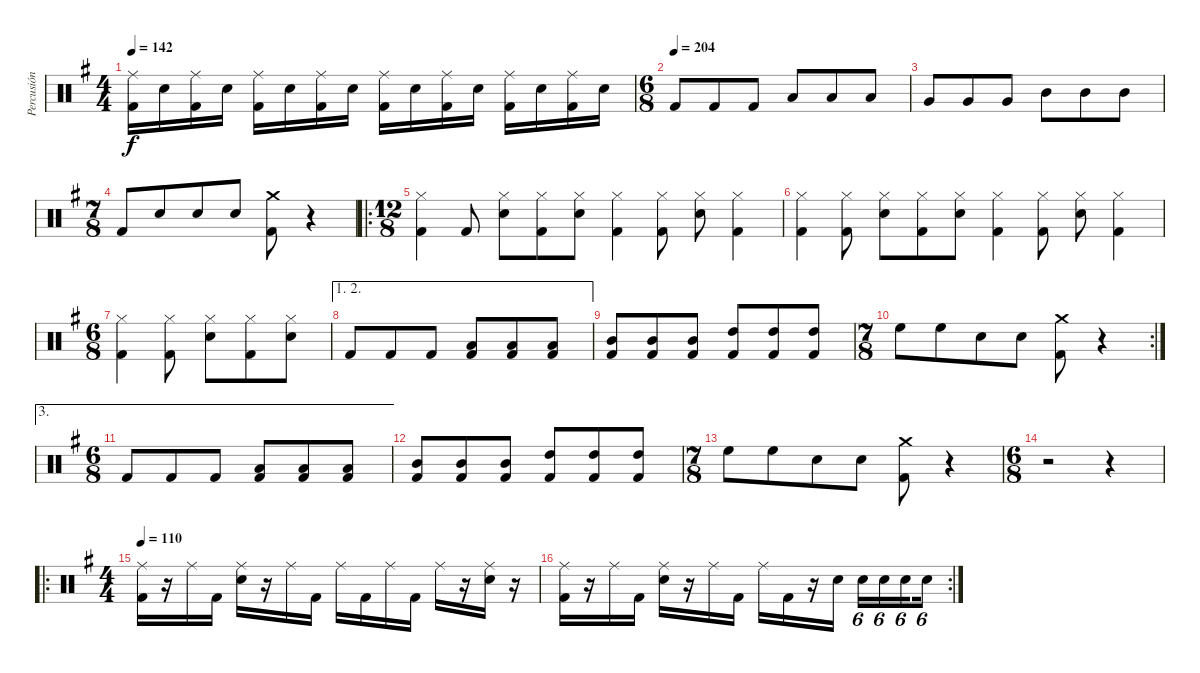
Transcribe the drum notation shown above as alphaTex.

\track ("Percusión" "Percusión") {instrument percussion}
\staff {score}
\articulation defaults
\ts (4 4)
\tempo 142
\clef neutral
\ks g
("Ride (middle)" "Kick (hit) 2").16{dy f} "Electric Snare (hit)".16 ("Ride (middle)" "Kick (hit) 2").16 "Electric Snare (hit)".16 ("Ride (middle)" "Kick (hit) 2").16 "Electric Snare (hit)".16 ("Ride (middle)" "Kick (hit) 2").16 "Electric Snare (hit)".16 ("Ride (middle)" "Kick (hit) 2").16 "Electric Snare (hit)".16 ("Ride (middle)" "Kick (hit) 2").16 "Electric Snare (hit)".16 ("Ride (middle)" "Kick (hit) 2").16 "Electric Snare (hit)".16 ("Ride (middle)" "Kick (hit) 2").16 "Electric Snare (hit)".16 |
\ts (6 8)
\tempo (204)
"Kick (hit) 2".8 "Kick (hit) 2".8 "Kick (hit) 2".8 "Low Floor Tom (hit)".8 "Low Floor Tom (hit)".8 "Low Floor Tom (hit)".8 |
"Very Low Tom (hit)".8 "Very Low Tom (hit)".8 "Very Low Tom (hit)".8 "Mid Tom (hit)".8 "Mid Tom (hit)".8 "Mid Tom (hit)".8 |
\ts (7 8)
"Kick (hit) 2".8 "Electric Snare (hit)".8 "Electric Snare (hit)".8 "Electric Snare (hit)".8 ("Crash medium (hit)" "Kick (hit) 2").8 r.4 |
\ro
\ts (12 8)
("Hi-Hat (closed)" "Kick (hit) 2").4 "Kick (hit) 2".8 ("Hi-Hat (closed)" "Electric Snare (hit)").8 ("Hi-Hat (closed)" "Kick (hit) 2").8 ("Hi-Hat (closed)" "Electric Snare (hit)").8 ("Hi-Hat (closed)" "Kick (hit) 2").4 ("Hi-Hat (closed)" "Kick (hit) 2").8 ("Hi-Hat (closed)" "Electric Snare (hit)").8 ("Hi-Hat (closed)" "Kick (hit) 2").4 |
("Hi-Hat (closed)" "Kick (hit) 2").4 ("Hi-Hat (closed)" "Kick (hit) 2").8 ("Hi-Hat (closed)" "Electric Snare (hit)").8 ("Hi-Hat (closed)" "Kick (hit) 2").8 ("Hi-Hat (closed)" "Electric Snare (hit)").8 ("Hi-Hat (closed)" "Kick (hit) 2").4 ("Hi-Hat (closed)" "Kick (hit) 2").8 ("Hi-Hat (closed)" "Electric Snare (hit)").8 ("Hi-Hat (closed)" "Kick (hit) 2").4 |
\ts (6 8)
("Hi-Hat (closed)" "Kick (hit) 2").4 ("Hi-Hat (closed)" "Kick (hit) 2").8 ("Hi-Hat (closed)" "Electric Snare (hit)").8 ("Hi-Hat (closed)" "Kick (hit) 2").8 ("Hi-Hat (closed)" "Electric Snare (hit)").8 |
\ae (1 2)
"Kick (hit) 2".8 "Kick (hit) 2".8 "Kick (hit) 2".8 ("Low Floor Tom (hit)" "Kick (hit) 2").8 ("Low Floor Tom (hit)" "Kick (hit) 2").8 ("Low Floor Tom (hit)" "Kick (hit) 2").8 |
("Mid Tom (hit)" "Kick (hit) 2").8 ("Mid Tom (hit)" "Kick (hit) 2").8 ("Mid Tom (hit)" "Kick (hit) 2").8 ("High Tom (hit)" "Kick (hit) 2").8 ("High Tom (hit)" "Kick (hit) 2").8 ("High Tom (hit)" "Kick (hit) 2").8 |
\rc 2
\ts (7 8)
"High Floor Tom (hit)".8 "High Floor Tom (hit)".8 "Electric Snare (hit)".8 "Electric Snare (hit)".8 ("Crash medium (hit)" "Kick (hit) 2").8 r.4 |
\ae 3
\ts (6 8)
"Kick (hit) 2".8 "Kick (hit) 2".8 "Kick (hit) 2".8 ("Low Floor Tom (hit)" "Kick (hit) 2").8 ("Low Floor Tom (hit)" "Kick (hit) 2").8 ("Low Floor Tom (hit)" "Kick (hit) 2").8 |
("Mid Tom (hit)" "Kick (hit) 2").8 ("Mid Tom (hit)" "Kick (hit) 2").8 ("Mid Tom (hit)" "Kick (hit) 2").8 ("High Tom (hit)" "Kick (hit) 2").8 ("High Tom (hit)" "Kick (hit) 2").8 ("High Tom (hit)" "Kick (hit) 2").8 |
\ts (7 8)
"High Floor Tom (hit)".8 "High Floor Tom (hit)".8 "Electric Snare (hit)".8 "Electric Snare (hit)".8 ("Crash medium (hit)" "Kick (hit) 2").8 r.4 |
\ts (6 8)
r.2 r.4 |
\ro
\ts (4 4)
\tempo 110
("Ride (middle)" "Kick (hit) 2").16 r.16 "Ride (middle)".16 "Kick (hit) 2".16 ("Ride (middle)" "Electric Snare (hit)").16 r.16 "Ride (middle)".16 "Kick (hit) 2".16 "Ride (middle)".16 "Kick (hit) 2".16 "Ride (middle)".16 "Kick (hit) 2".16 "Ride (middle)".16 r.16 ("Ride (middle)" "Electric Snare (hit)").16 r.16 |
\rc 2
("Ride (middle)" "Kick (hit) 2").16 r.16 "Ride (middle)".16 "Kick (hit) 2".16 ("Ride (middle)" "Electric Snare (hit)").16 r.16 "Ride (middle)".16 "Kick (hit) 2".16 "Ride (middle)".16 "Kick (hit) 2".16 r.16 "Electric Snare (hit)".16 "Electric Snare (hit)".16{tu (6 4)} "Electric Snare (hit)".16{tu (6 4)} "Electric Snare (hit)".16{tu (6 4) beam splitsecondary} "Electric Snare (hit)".16{tu (6 4)}
